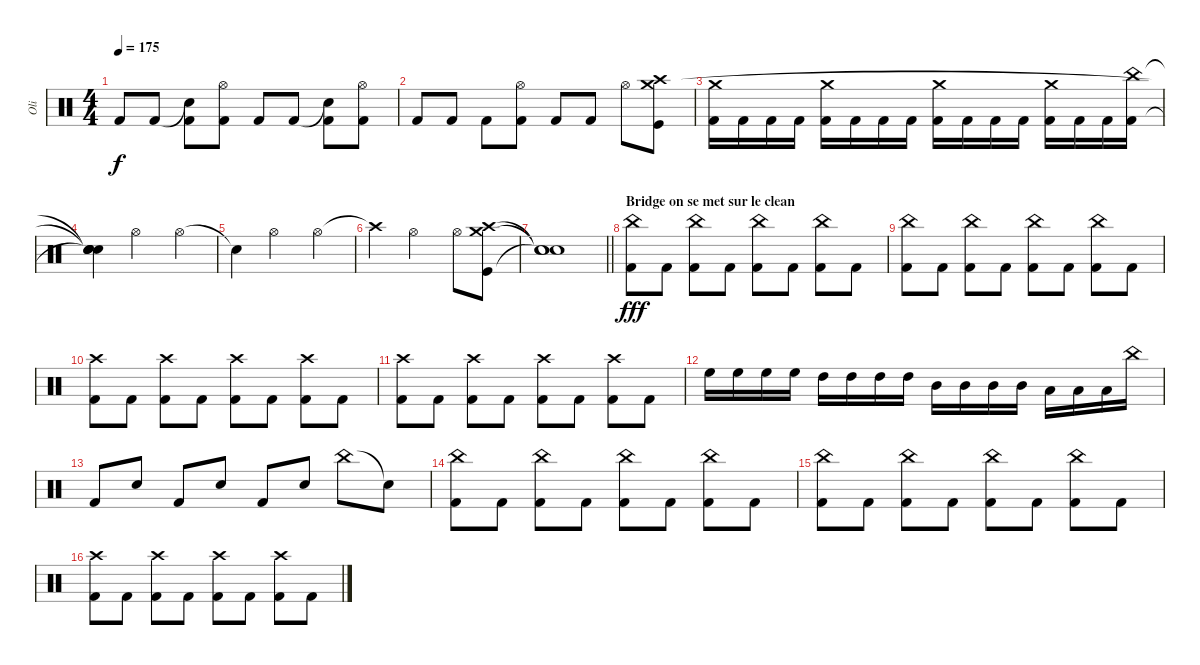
\track ("Oli" "Oli") {instrument percussion}
\staff {score}
\articulation defaults
\ts (4 4)
\tempo 175
\clef neutral
\ks c "Kick (hit) 2".8{dy f} "Kick (hit) 2".8
("Snare (hit)"{t} "Kick (hit) 2").8 ("Hi-Hat (open)" "Kick (hit) 2").8 "Kick (hit) 2".8 "Kick (hit) 2".8 ("Snare (hit)"{t} "Kick (hit) 2").8 ("Hi-Hat (open)" "Kick (hit) 2").8 |
"Kick (hit) 2".8 "Kick (hit) 2".8 "Kick (hit) 2".8 ("Hi-Hat (open)" "Kick (hit) 2").8 "Kick (hit) 2".8 "Kick (hit) 2".8 "Hi-Hat (open)".8 ("Kick (hit)" "Crash high (hit)" "Crash medium (hit)").8 |
("Kick (hit) 2" "Crash medium (hit)").16 "Kick (hit) 2".16 "Kick (hit) 2".16 "Kick (hit) 2".16 ("Kick (hit) 2" "Crash medium (hit)").16 "Kick (hit) 2".16 "Kick (hit) 2".16 "Kick (hit) 2".16 ("Kick (hit) 2" "Crash medium (hit)").16 "Kick (hit) 2".16 "Kick (hit) 2".16 "Kick (hit) 2".16 ("Kick (hit) 2" "Crash medium (hit)").16 "Kick (hit) 2".16 "Kick (hit) 2".16 ("China (hit)" "Kick (hit) 2").16 |
("Snare (hit)"{t} "Snare (hit)"{t} "Snare (hit)"{t} "Snare (hit)").4 "Hi-Hat (open)".2 "Hi-Hat (open)".4 |
"Snare (hit)"{t}.4 "Hi-Hat (open)".2 "Hi-Hat (open)".4 |
"Crash high (hit)"{t}.4 "Hi-Hat (open)".2 "Hi-Hat (open)".8 ("Kick (hit)" "Crash high (hit)" "Crash medium (hit)").8 |
\barLineRight lightlight
("Snare (hit)"{t} "Snare (hit)"{t} "Snare (hit)"{t}).1 |
\section ("" "Bridge on se met sur le clean")
("China (hit)" "Kick (hit) 2").8{dy fff} "Kick (hit) 2".8 ("China (hit)" "Kick (hit) 2").8 "Kick (hit) 2".8 ("China (hit)" "Kick (hit) 2").8 "Kick (hit) 2".8 ("China (hit)" "Kick (hit) 2").8 "Kick (hit) 2".8 |
("China (hit)" "Kick (hit) 2").8 "Kick (hit) 2".8 ("China (hit)" "Kick (hit) 2").8 "Kick (hit) 2".8 ("China (hit)" "Kick (hit) 2").8 "Kick (hit) 2".8 ("China (hit)" "Kick (hit) 2").8 "Kick (hit) 2".8 |
("Crash high (hit)" "Kick (hit) 2").8 "Kick (hit) 2".8 ("Crash high (hit)" "Kick (hit) 2").8 "Kick (hit) 2".8 ("Crash high (hit)" "Kick (hit) 2").8 "Kick (hit) 2".8 ("Crash high (hit)" "Kick (hit) 2").8 "Kick (hit) 2".8 |
("Crash high (hit)" "Kick (hit) 2").8 "Kick (hit) 2".8 ("Crash high (hit)" "Kick (hit) 2").8 "Kick (hit) 2".8 ("Crash high (hit)" "Kick (hit) 2").8 "Kick (hit) 2".8 ("Crash high (hit)" "Kick (hit) 2").8 "Kick (hit) 2".8 |
"High Floor Tom (hit)".16 "High Floor Tom (hit)".16 "High Floor Tom (hit)".16 "High Floor Tom (hit)".16 "High Tom (hit)".16 "High Tom (hit)".16 "High Tom (hit)".16 "High Tom (hit)".16 "Mid Tom (hit)".16 "Mid Tom (hit)".16 "Mid Tom (hit)".16 "Mid Tom (hit)".16 "Low Tom (hit)".16 "Low Tom (hit)".16 "Low Tom (hit)".16 "China (hit)".16 |
"Kick (hit) 2".8 "Snare (hit) 2".8 "Kick (hit) 2".8 "Snare (hit) 2".8 "Kick (hit) 2".8 "Snare (hit) 2".8 "China (hit)".8 "Snare (hit)"{t}.8 |
("China (hit)" "Kick (hit) 2").8 "Kick (hit) 2".8 ("China (hit)" "Kick (hit) 2").8 "Kick (hit) 2".8 ("China (hit)" "Kick (hit) 2").8 "Kick (hit) 2".8 ("China (hit)" "Kick (hit) 2").8 "Kick (hit) 2".8 |
("China (hit)" "Kick (hit) 2").8 "Kick (hit) 2".8 ("China (hit)" "Kick (hit) 2").8 "Kick (hit) 2".8 ("China (hit)" "Kick (hit) 2").8 "Kick (hit) 2".8 ("China (hit)" "Kick (hit) 2").8 "Kick (hit) 2".8 |
("Crash high (hit)" "Kick (hit) 2").8 "Kick (hit) 2".8 ("Crash high (hit)" "Kick (hit) 2").8 "Kick (hit) 2".8 ("Crash high (hit)" "Kick (hit) 2").8 "Kick (hit) 2".8 ("Crash high (hit)" "Kick (hit) 2").8 "Kick (hit) 2".8
